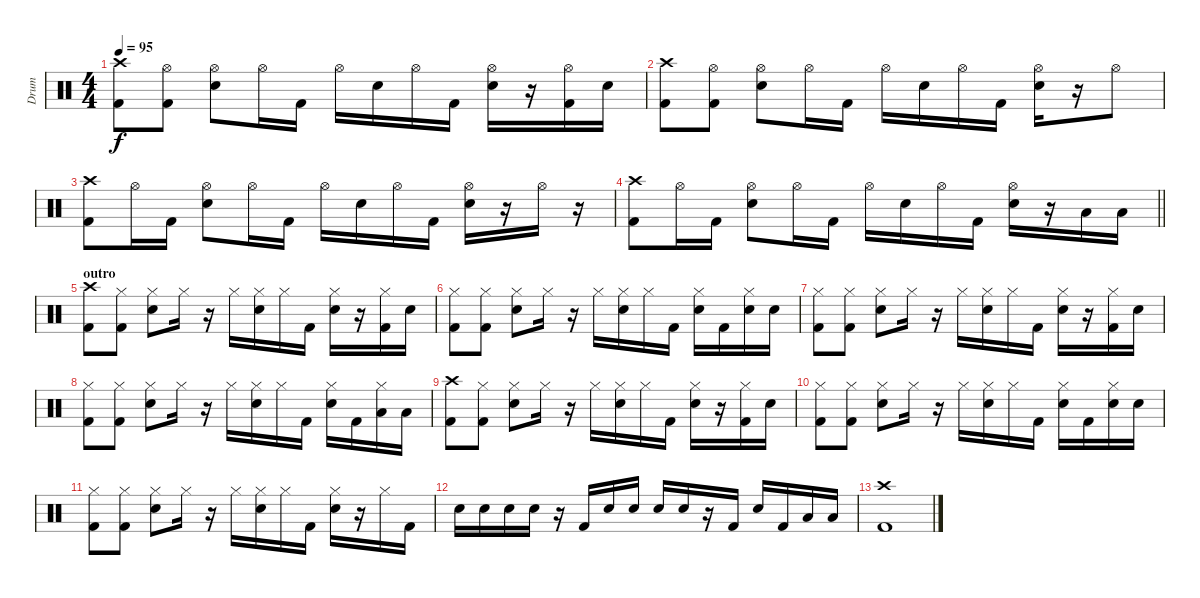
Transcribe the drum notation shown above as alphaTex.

\track ("Drum" "Drum") {instrument percussion}
\staff {score}
\articulation defaults
\ts (4 4)
\tempo 95
\clef neutral
\ks c
("Crash high (hit)" "Kick (hit) 2").8{dy f} ("Hi-Hat (open)" "Kick (hit) 2").8 ("Hi-Hat (open)" "Snare (hit) 2").8 "Hi-Hat (open)".16 "Kick (hit) 2".16 "Hi-Hat (open)".16 "Snare (hit) 2".16 "Hi-Hat (open)".16 "Kick (hit) 2".16 ("Hi-Hat (open)" "Snare (hit) 2").16 r.16 ("Hi-Hat (open)" "Kick (hit) 2").16 "Snare (hit) 2".16 |
("Crash high (hit)" "Kick (hit) 2").8 ("Hi-Hat (open)" "Kick (hit) 2").8 ("Hi-Hat (open)" "Snare (hit) 2").8 "Hi-Hat (open)".16 "Kick (hit) 2".16 "Hi-Hat (open)".16 "Snare (hit) 2".16 "Hi-Hat (open)".16 "Kick (hit) 2".16 ("Hi-Hat (open)" "Snare (hit) 2").16 r.16 "Hi-Hat (open)".8 |
("Crash high (hit)" "Kick (hit) 2").8 "Hi-Hat (open)".16 "Kick (hit) 2".16 ("Hi-Hat (open)" "Snare (hit) 2").8 "Hi-Hat (open)".16 "Kick (hit) 2".16 "Hi-Hat (open)".16 "Snare (hit) 2".16 "Hi-Hat (open)".16 "Kick (hit) 2".16 ("Hi-Hat (open)" "Snare (hit) 2").16 r.16 "Hi-Hat (open)".16 r.16 |
\barLineRight lightlight
("Crash high (hit)" "Kick (hit) 2").8 "Hi-Hat (open)".16 "Kick (hit) 2".16 ("Hi-Hat (open)" "Snare (hit) 2").8 "Hi-Hat (open)".16 "Kick (hit) 2".16 "Hi-Hat (open)".16 "Snare (hit) 2".16 "Hi-Hat (open)".16 "Kick (hit) 2".16 ("Hi-Hat (open)" "Snare (hit) 2").16 r.16 "Low Tom (hit)".16 "Low Tom (hit)".16 |
\section ("" "outro")
("Crash high (hit)" "Kick (hit) 2").8 ("Hi-Hat (closed)" "Kick (hit) 2").8 ("Hi-Hat (closed)" "Snare (hit) 2").8 "Hi-Hat (closed)".16 r.16 "Hi-Hat (closed)".16 ("Hi-Hat (closed)" "Snare (hit) 2").16 "Hi-Hat (closed)".16 "Kick (hit) 2".16 ("Hi-Hat (closed)" "Snare (hit) 2").16 r.16 ("Hi-Hat (closed)" "Kick (hit) 2").16 "Snare (hit) 2".16 |
("Hi-Hat (closed)" "Kick (hit) 2").8 ("Hi-Hat (closed)" "Kick (hit) 2").8 ("Hi-Hat (closed)" "Snare (hit) 2").8 "Hi-Hat (closed)".16 r.16 "Hi-Hat (closed)".16 ("Hi-Hat (closed)" "Snare (hit) 2").16 "Hi-Hat (closed)".16 "Kick (hit) 2".16 ("Hi-Hat (closed)" "Snare (hit) 2").16 "Kick (hit) 2".16 ("Hi-Hat (closed)" "Snare (hit) 2").16 "Snare (hit) 2".16 |
("Hi-Hat (closed)" "Kick (hit) 2").8 ("Hi-Hat (closed)" "Kick (hit) 2").8 ("Hi-Hat (closed)" "Snare (hit) 2").8 "Hi-Hat (closed)".16 r.16 "Hi-Hat (closed)".16 ("Hi-Hat (closed)" "Snare (hit) 2").16 "Hi-Hat (closed)".16 "Kick (hit) 2".16 ("Hi-Hat (closed)" "Snare (hit) 2").16 r.16 ("Hi-Hat (closed)" "Kick (hit) 2").16 "Snare (hit) 2".16 |
("Hi-Hat (closed)" "Kick (hit) 2").8 ("Hi-Hat (closed)" "Kick (hit) 2").8 ("Hi-Hat (closed)" "Snare (hit) 2").8 "Hi-Hat (closed)".16 r.16 "Hi-Hat (closed)".16 ("Hi-Hat (closed)" "Snare (hit) 2").16 "Hi-Hat (closed)".16 "Kick (hit) 2".16 ("Hi-Hat (closed)" "Snare (hit) 2").16 "Kick (hit) 2".16 ("Hi-Hat (closed)" "Low Tom (hit)").16 "Low Tom (hit)".16 |
("Crash high (hit)" "Kick (hit) 2").8 ("Hi-Hat (closed)" "Kick (hit) 2").8 ("Hi-Hat (closed)" "Snare (hit) 2").8 "Hi-Hat (closed)".16 r.16 "Hi-Hat (closed)".16 ("Hi-Hat (closed)" "Snare (hit) 2").16 "Hi-Hat (closed)".16 "Kick (hit) 2".16 ("Hi-Hat (closed)" "Snare (hit) 2").16 r.16 ("Hi-Hat (closed)" "Kick (hit) 2").16 "Snare (hit) 2".16 |
("Hi-Hat (closed)" "Kick (hit) 2").8 ("Hi-Hat (closed)" "Kick (hit) 2").8 ("Hi-Hat (closed)" "Snare (hit) 2").8 "Hi-Hat (closed)".16 r.16 "Hi-Hat (closed)".16 ("Hi-Hat (closed)" "Snare (hit) 2").16 "Hi-Hat (closed)".16 "Kick (hit) 2".16 ("Hi-Hat (closed)" "Snare (hit) 2").16 "Kick (hit) 2".16 ("Hi-Hat (closed)" "Snare (hit) 2").16 "Snare (hit) 2".16 |
("Hi-Hat (closed)" "Kick (hit) 2").8 ("Hi-Hat (closed)" "Kick (hit) 2").8 ("Hi-Hat (closed)" "Snare (hit) 2").8 "Hi-Hat (closed)".16 r.16 "Hi-Hat (closed)".16 ("Hi-Hat (closed)" "Snare (hit) 2").16 "Hi-Hat (closed)".16 "Kick (hit) 2".16 ("Hi-Hat (closed)" "Snare (hit) 2").16 r.16 "Hi-Hat (closed)".16 "Kick (hit) 2".16 |
"Snare (hit) 2".16 "Snare (hit) 2".16 "Snare (hit) 2".16 "Snare (hit) 2".16 r.16 "Kick (hit) 2".16 "Snare (hit) 2".16 "Snare (hit) 2".16 "Snare (hit) 2".16 "Snare (hit) 2".16 r.16 "Kick (hit) 2".16 "Snare (hit) 2".16 "Kick (hit) 2".16 "Low Tom (hit)".16 "Low Tom (hit)".16 |
("Crash high (hit)" "Kick (hit) 2").1
